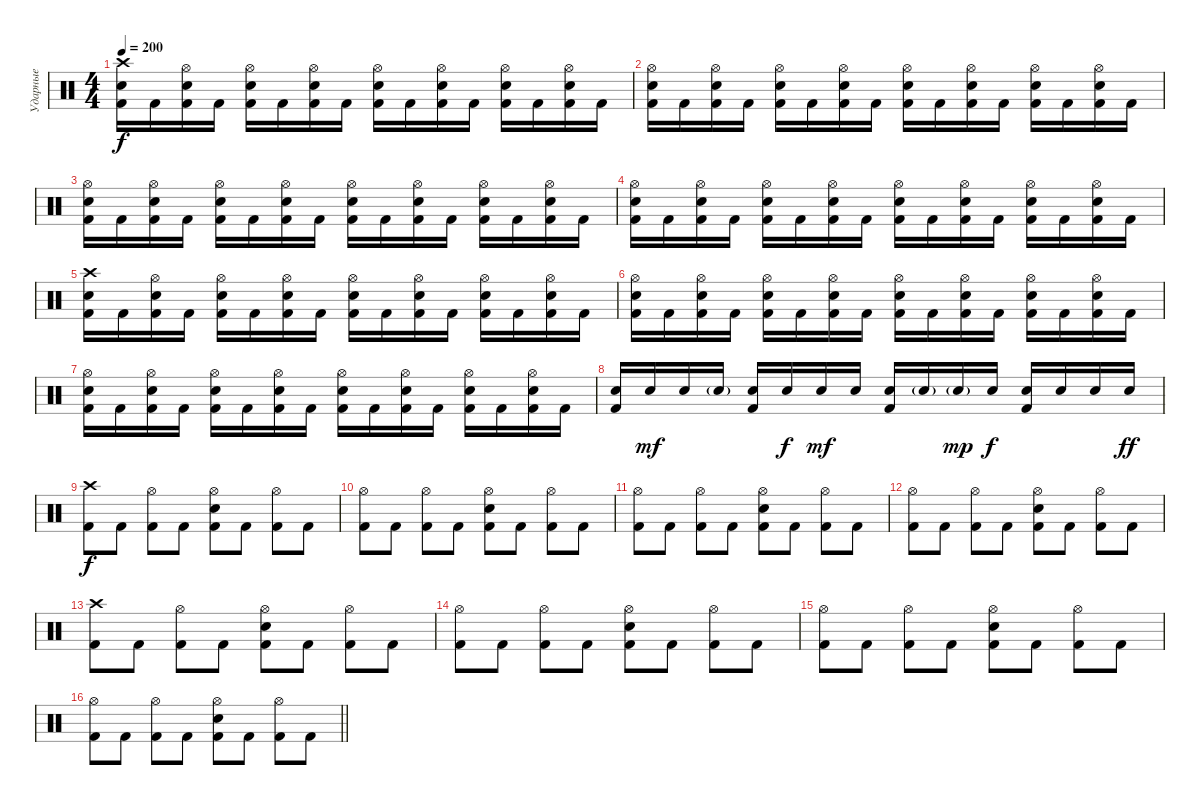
\track ("Ударные" "Ударные") {instrument percussion}
\staff {score}
\articulation defaults
\ts (4 4)
\tempo 200
\clef neutral
\ks c
("Crash high (hit)" "Electric Snare (hit)" "Kick (hit) 2").16{dy f} "Kick (hit) 2".16 ("Hi-Hat (open)" "Electric Snare (hit)" "Kick (hit) 2").16 "Kick (hit) 2".16 ("Hi-Hat (open)" "Electric Snare (hit)" "Kick (hit) 2").16 "Kick (hit) 2".16 ("Hi-Hat (open)" "Electric Snare (hit)" "Kick (hit) 2").16 "Kick (hit) 2".16 ("Hi-Hat (open)" "Electric Snare (hit)" "Kick (hit) 2").16 "Kick (hit) 2".16 ("Hi-Hat (open)" "Electric Snare (hit)" "Kick (hit) 2").16 "Kick (hit) 2".16 ("Hi-Hat (open)" "Electric Snare (hit)" "Kick (hit) 2").16 "Kick (hit) 2".16 ("Hi-Hat (open)" "Electric Snare (hit)" "Kick (hit) 2").16 "Kick (hit) 2".16 |
("Hi-Hat (open)" "Electric Snare (hit)" "Kick (hit) 2").16 "Kick (hit) 2".16 ("Hi-Hat (open)" "Electric Snare (hit)" "Kick (hit) 2").16 "Kick (hit) 2".16 ("Hi-Hat (open)" "Electric Snare (hit)" "Kick (hit) 2").16 "Kick (hit) 2".16 ("Hi-Hat (open)" "Electric Snare (hit)" "Kick (hit) 2").16 "Kick (hit) 2".16 ("Hi-Hat (open)" "Electric Snare (hit)" "Kick (hit) 2").16 "Kick (hit) 2".16 ("Hi-Hat (open)" "Electric Snare (hit)" "Kick (hit) 2").16 "Kick (hit) 2".16 ("Hi-Hat (open)" "Electric Snare (hit)" "Kick (hit) 2").16 "Kick (hit) 2".16 ("Hi-Hat (open)" "Electric Snare (hit)" "Kick (hit) 2").16 "Kick (hit) 2".16 |
("Hi-Hat (open)" "Electric Snare (hit)" "Kick (hit) 2").16 "Kick (hit) 2".16 ("Hi-Hat (open)" "Electric Snare (hit)" "Kick (hit) 2").16 "Kick (hit) 2".16 ("Hi-Hat (open)" "Electric Snare (hit)" "Kick (hit) 2").16 "Kick (hit) 2".16 ("Hi-Hat (open)" "Electric Snare (hit)" "Kick (hit) 2").16 "Kick (hit) 2".16 ("Hi-Hat (open)" "Electric Snare (hit)" "Kick (hit) 2").16 "Kick (hit) 2".16 ("Hi-Hat (open)" "Electric Snare (hit)" "Kick (hit) 2").16 "Kick (hit) 2".16 ("Hi-Hat (open)" "Electric Snare (hit)" "Kick (hit) 2").16 "Kick (hit) 2".16 ("Hi-Hat (open)" "Electric Snare (hit)" "Kick (hit) 2").16 "Kick (hit) 2".16 |
("Hi-Hat (open)" "Electric Snare (hit)" "Kick (hit) 2").16 "Kick (hit) 2".16 ("Hi-Hat (open)" "Electric Snare (hit)" "Kick (hit) 2").16 "Kick (hit) 2".16 ("Hi-Hat (open)" "Electric Snare (hit)" "Kick (hit) 2").16 "Kick (hit) 2".16 ("Hi-Hat (open)" "Electric Snare (hit)" "Kick (hit) 2").16 "Kick (hit) 2".16 ("Hi-Hat (open)" "Electric Snare (hit)" "Kick (hit) 2").16 "Kick (hit) 2".16 ("Hi-Hat (open)" "Electric Snare (hit)" "Kick (hit) 2").16 "Kick (hit) 2".16 ("Hi-Hat (open)" "Electric Snare (hit)" "Kick (hit) 2").16 "Kick (hit) 2".16 ("Hi-Hat (open)" "Electric Snare (hit)" "Kick (hit) 2").16 "Kick (hit) 2".16 |
("Crash high (hit)" "Electric Snare (hit)" "Kick (hit) 2").16 "Kick (hit) 2".16 ("Hi-Hat (open)" "Electric Snare (hit)" "Kick (hit) 2").16 "Kick (hit) 2".16 ("Hi-Hat (open)" "Electric Snare (hit)" "Kick (hit) 2").16 "Kick (hit) 2".16 ("Hi-Hat (open)" "Electric Snare (hit)" "Kick (hit) 2").16 "Kick (hit) 2".16 ("Hi-Hat (open)" "Electric Snare (hit)" "Kick (hit) 2").16 "Kick (hit) 2".16 ("Hi-Hat (open)" "Electric Snare (hit)" "Kick (hit) 2").16 "Kick (hit) 2".16 ("Hi-Hat (open)" "Electric Snare (hit)" "Kick (hit) 2").16 "Kick (hit) 2".16 ("Hi-Hat (open)" "Electric Snare (hit)" "Kick (hit) 2").16 "Kick (hit) 2".16 |
("Hi-Hat (open)" "Electric Snare (hit)" "Kick (hit) 2").16 "Kick (hit) 2".16 ("Hi-Hat (open)" "Electric Snare (hit)" "Kick (hit) 2").16 "Kick (hit) 2".16 ("Hi-Hat (open)" "Electric Snare (hit)" "Kick (hit) 2").16 "Kick (hit) 2".16 ("Hi-Hat (open)" "Electric Snare (hit)" "Kick (hit) 2").16 "Kick (hit) 2".16 ("Hi-Hat (open)" "Electric Snare (hit)" "Kick (hit) 2").16 "Kick (hit) 2".16 ("Hi-Hat (open)" "Electric Snare (hit)" "Kick (hit) 2").16 "Kick (hit) 2".16 ("Hi-Hat (open)" "Electric Snare (hit)" "Kick (hit) 2").16 "Kick (hit) 2".16 ("Hi-Hat (open)" "Electric Snare (hit)" "Kick (hit) 2").16 "Kick (hit) 2".16 |
("Hi-Hat (open)" "Electric Snare (hit)" "Kick (hit) 2").16 "Kick (hit) 2".16 ("Hi-Hat (open)" "Electric Snare (hit)" "Kick (hit) 2").16 "Kick (hit) 2".16 ("Hi-Hat (open)" "Electric Snare (hit)" "Kick (hit) 2").16 "Kick (hit) 2".16 ("Hi-Hat (open)" "Electric Snare (hit)" "Kick (hit) 2").16 "Kick (hit) 2".16 ("Hi-Hat (open)" "Electric Snare (hit)" "Kick (hit) 2").16 "Kick (hit) 2".16 ("Hi-Hat (open)" "Electric Snare (hit)" "Kick (hit) 2").16 "Kick (hit) 2".16 ("Hi-Hat (open)" "Electric Snare (hit)" "Kick (hit) 2").16 "Kick (hit) 2".16 ("Hi-Hat (open)" "Electric Snare (hit)" "Kick (hit) 2").16 "Kick (hit) 2".16 |
("Electric Snare (hit)" "Kick (hit) 2").16 "Electric Snare (hit)".16{dy mf} "Electric Snare (hit)".16 "Electric Snare (hit)"{g}.16 ("Electric Snare (hit)" "Kick (hit) 2").16 "Electric Snare (hit)".16{dy f} "Electric Snare (hit)".16{dy mf} "Electric Snare (hit)".16 ("Electric Snare (hit)" "Kick (hit) 2").16 "Electric Snare (hit)"{g}.16 "Electric Snare (hit)"{g}.16{dy mp} "Electric Snare (hit)".16{dy f} ("Electric Snare (hit)" "Kick (hit) 2").16 "Electric Snare (hit)".16 "Electric Snare (hit)".16 "Electric Snare (hit)".16{dy ff} |
("Crash high (hit)" "Kick (hit) 2").8{dy f} "Kick (hit) 2".8 ("Hi-Hat (open)" "Kick (hit) 2").8 "Kick (hit) 2".8 ("Hi-Hat (open)" "Electric Snare (hit)" "Kick (hit) 2").8 "Kick (hit) 2".8 ("Hi-Hat (open)" "Kick (hit) 2").8 "Kick (hit) 2".8 |
("Hi-Hat (open)" "Kick (hit) 2").8 "Kick (hit) 2".8 ("Hi-Hat (open)" "Kick (hit) 2").8 "Kick (hit) 2".8 ("Hi-Hat (open)" "Electric Snare (hit)" "Kick (hit) 2").8 "Kick (hit) 2".8 ("Hi-Hat (open)" "Kick (hit) 2").8 "Kick (hit) 2".8 |
("Hi-Hat (open)" "Kick (hit) 2").8 "Kick (hit) 2".8 ("Hi-Hat (open)" "Kick (hit) 2").8 "Kick (hit) 2".8 ("Hi-Hat (open)" "Electric Snare (hit)" "Kick (hit) 2").8 "Kick (hit) 2".8 ("Hi-Hat (open)" "Kick (hit) 2").8 "Kick (hit) 2".8 |
("Hi-Hat (open)" "Kick (hit) 2").8 "Kick (hit) 2".8 ("Hi-Hat (open)" "Kick (hit) 2").8 "Kick (hit) 2".8 ("Hi-Hat (open)" "Electric Snare (hit)" "Kick (hit) 2").8 "Kick (hit) 2".8 ("Hi-Hat (open)" "Kick (hit) 2").8 "Kick (hit) 2".8 |
("Crash high (hit)" "Kick (hit) 2").8 "Kick (hit) 2".8 ("Hi-Hat (open)" "Kick (hit) 2").8 "Kick (hit) 2".8 ("Hi-Hat (open)" "Electric Snare (hit)" "Kick (hit) 2").8 "Kick (hit) 2".8 ("Hi-Hat (open)" "Kick (hit) 2").8 "Kick (hit) 2".8 |
("Hi-Hat (open)" "Kick (hit) 2").8 "Kick (hit) 2".8 ("Hi-Hat (open)" "Kick (hit) 2").8 "Kick (hit) 2".8 ("Hi-Hat (open)" "Electric Snare (hit)" "Kick (hit) 2").8 "Kick (hit) 2".8 ("Hi-Hat (open)" "Kick (hit) 2").8 "Kick (hit) 2".8 |
("Hi-Hat (open)" "Kick (hit) 2").8 "Kick (hit) 2".8 ("Hi-Hat (open)" "Kick (hit) 2").8 "Kick (hit) 2".8 ("Hi-Hat (open)" "Electric Snare (hit)" "Kick (hit) 2").8 "Kick (hit) 2".8 ("Hi-Hat (open)" "Kick (hit) 2").8 "Kick (hit) 2".8 |
\barLineRight lightlight
("Hi-Hat (open)" "Kick (hit) 2").8 "Kick (hit) 2".8 ("Hi-Hat (open)" "Kick (hit) 2").8 "Kick (hit) 2".8 ("Hi-Hat (open)" "Electric Snare (hit)" "Kick (hit) 2").8 "Kick (hit) 2".8 ("Hi-Hat (open)" "Kick (hit) 2").8 "Kick (hit) 2".8
